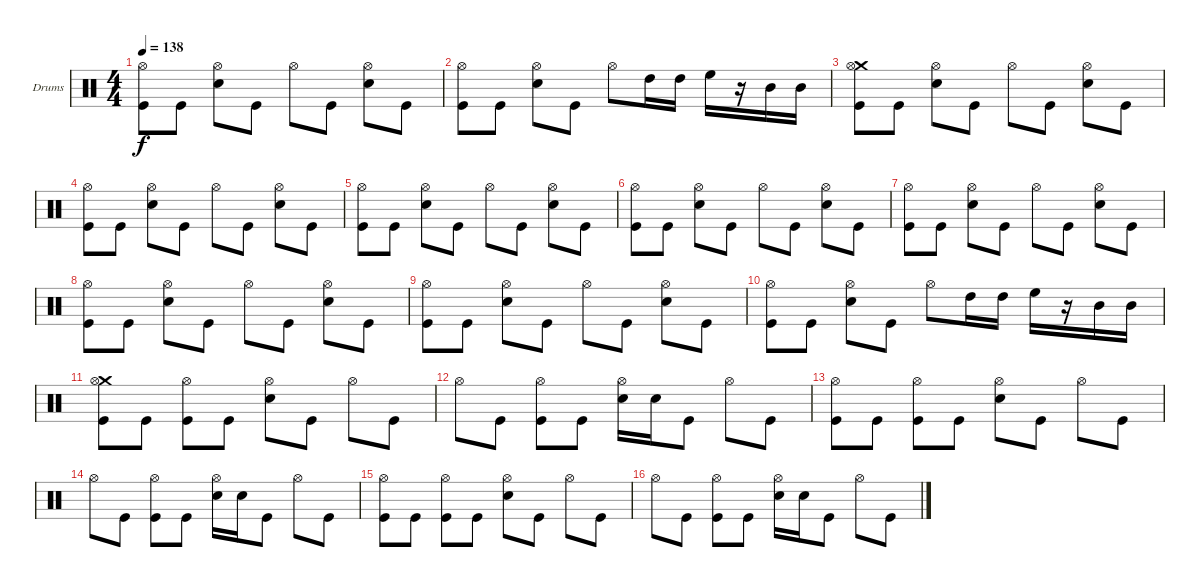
\bracketExtendMode groupsimilarinstruments
\firstSystemTrackNameOrientation horizontal
\otherSystemsTrackNameOrientation horizontal
\track ("Drumkit" "Drums") {instrument percussion}
\staff {score}
\articulation defaults
\ts (4 4)
\tempo 138
\clef neutral
\ks c
("Hi-Hat (open)" "Kick (hit)").8{dy f} "Kick (hit)".8 ("Snare (hit) 2" "Hi-Hat (open)").8 "Kick (hit)".8 "Hi-Hat (open)".8 "Kick (hit)".8 ("Snare (hit) 2" "Hi-Hat (open)").8 "Kick (hit)".8 |
("Hi-Hat (open)" "Kick (hit)").8 "Kick (hit)".8 ("Snare (hit) 2" "Hi-Hat (open)").8 "Kick (hit)".8 "Hi-Hat (open)".8 "High Tom (hit)".16 "High Tom (hit)".16 "High Floor Tom (hit)".16 r.16 "Mid Tom (hit)".16 "Mid Tom (hit)".16 |
("Crash medium (hit)" "Hi-Hat (open)" "Kick (hit)").8 "Kick (hit)".8 ("Snare (hit) 2" "Hi-Hat (open)").8 "Kick (hit)".8 "Hi-Hat (open)".8 "Kick (hit)".8 ("Snare (hit) 2" "Hi-Hat (open)").8 "Kick (hit)".8 |
("Hi-Hat (open)" "Kick (hit)").8 "Kick (hit)".8 ("Snare (hit) 2" "Hi-Hat (open)").8 "Kick (hit)".8 "Hi-Hat (open)".8 "Kick (hit)".8 ("Snare (hit) 2" "Hi-Hat (open)").8 "Kick (hit)".8 |
("Hi-Hat (open)" "Kick (hit)").8 "Kick (hit)".8 ("Snare (hit) 2" "Hi-Hat (open)").8 "Kick (hit)".8 "Hi-Hat (open)".8 "Kick (hit)".8 ("Snare (hit) 2" "Hi-Hat (open)").8 "Kick (hit)".8 |
("Hi-Hat (open)" "Kick (hit)").8 "Kick (hit)".8 ("Snare (hit) 2" "Hi-Hat (open)").8 "Kick (hit)".8 "Hi-Hat (open)".8 "Kick (hit)".8 ("Snare (hit) 2" "Hi-Hat (open)").8 "Kick (hit)".8 |
("Hi-Hat (open)" "Kick (hit)").8 "Kick (hit)".8 ("Snare (hit) 2" "Hi-Hat (open)").8 "Kick (hit)".8 "Hi-Hat (open)".8 "Kick (hit)".8 ("Snare (hit) 2" "Hi-Hat (open)").8 "Kick (hit)".8 |
("Hi-Hat (open)" "Kick (hit)").8 "Kick (hit)".8 ("Snare (hit) 2" "Hi-Hat (open)").8 "Kick (hit)".8 "Hi-Hat (open)".8 "Kick (hit)".8 ("Snare (hit) 2" "Hi-Hat (open)").8 "Kick (hit)".8 |
("Hi-Hat (open)" "Kick (hit)").8 "Kick (hit)".8 ("Snare (hit) 2" "Hi-Hat (open)").8 "Kick (hit)".8 "Hi-Hat (open)".8 "Kick (hit)".8 ("Snare (hit) 2" "Hi-Hat (open)").8 "Kick (hit)".8 |
("Hi-Hat (open)" "Kick (hit)").8 "Kick (hit)".8 ("Snare (hit) 2" "Hi-Hat (open)").8 "Kick (hit)".8 "Hi-Hat (open)".8 "High Tom (hit)".16 "High Tom (hit)".16 "High Floor Tom (hit)".16 r.16 "Mid Tom (hit)".16 "Mid Tom (hit)".16 |
("Crash medium (hit)" "Hi-Hat (open)" "Kick (hit)").8 "Kick (hit)".8 ("Hi-Hat (open)" "Kick (hit)").8 "Kick (hit)".8 ("Snare (hit) 2" "Hi-Hat (open)").8 "Kick (hit)".8 "Hi-Hat (open)".8 "Kick (hit)".8 |
"Hi-Hat (open)".8 "Kick (hit)".8 ("Hi-Hat (open)" "Kick (hit)").8 "Kick (hit)".8 ("Snare (hit) 2" "Hi-Hat (open)").16 "Snare (hit) 2".16 "Kick (hit)".8 "Hi-Hat (open)".8 "Kick (hit)".8 |
("Hi-Hat (open)" "Kick (hit)").8 "Kick (hit)".8 ("Hi-Hat (open)" "Kick (hit)").8 "Kick (hit)".8 ("Snare (hit) 2" "Hi-Hat (open)").8 "Kick (hit)".8 "Hi-Hat (open)".8 "Kick (hit)".8 |
"Hi-Hat (open)".8 "Kick (hit)".8 ("Hi-Hat (open)" "Kick (hit)").8 "Kick (hit)".8 ("Snare (hit) 2" "Hi-Hat (open)").16 "Snare (hit) 2".16 "Kick (hit)".8 "Hi-Hat (open)".8 "Kick (hit)".8 |
("Hi-Hat (open)" "Kick (hit)").8 "Kick (hit)".8 ("Hi-Hat (open)" "Kick (hit)").8 "Kick (hit)".8 ("Snare (hit) 2" "Hi-Hat (open)").8 "Kick (hit)".8 "Hi-Hat (open)".8 "Kick (hit)".8 |
"Hi-Hat (open)".8 "Kick (hit)".8 ("Hi-Hat (open)" "Kick (hit)").8 "Kick (hit)".8 ("Snare (hit) 2" "Hi-Hat (open)").16 "Snare (hit) 2".16 "Kick (hit)".8 "Hi-Hat (open)".8 "Kick (hit)".8
